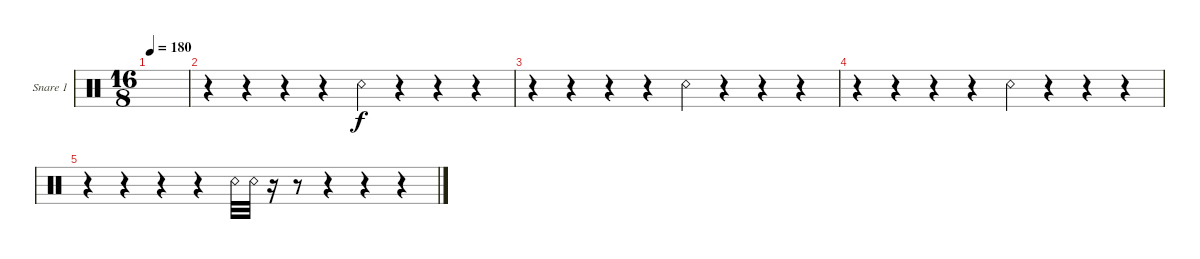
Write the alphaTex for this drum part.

\defaultSystemsLayout 4
\bracketExtendMode groupsimilarinstruments
\firstSystemTrackNameOrientation horizontal
\otherSystemsTrackNameOrientation horizontal
\track ("Snare 1" "Snare 1") {instrument percussion}
\staff {score}
\articulation defaults
\ts (16 8)
\tempo 180
\clef neutral
\ks c
|
r.4 r.4 r.4 r.4 "Snare (rim shot)".4 r.4 r.4 r.4 |
r.4 r.4 r.4 r.4 "Snare (rim shot)".4 r.4 r.4 r.4 |
r.4 r.4 r.4 r.4 "Snare (rim shot)".4 r.4 r.4 r.4 |
r.4 r.4 r.4 r.4 "Snare (rim shot)".32 "Snare (rim shot)".32 r.16 r.8 r.4 r.4 r.4
